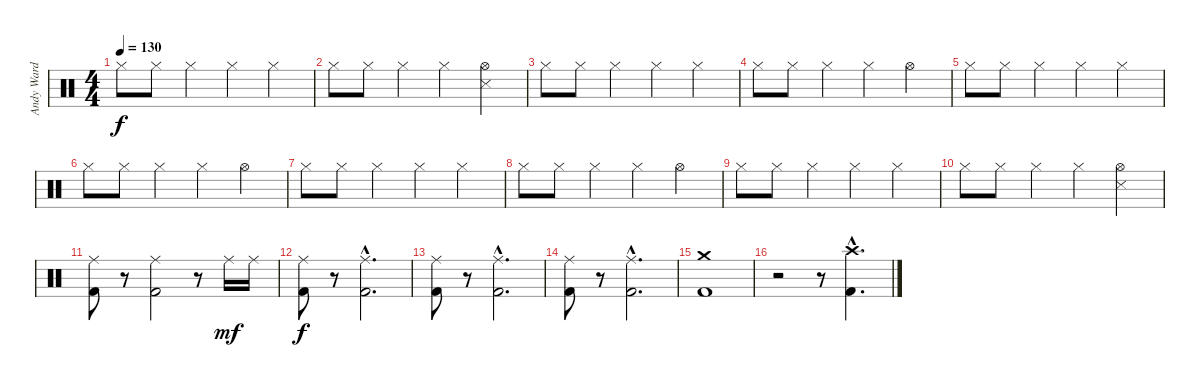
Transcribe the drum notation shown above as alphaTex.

\track ("Andy Ward" "Andy Ward") {instrument percussion}
\staff {score}
\articulation defaults
\ts (4 4)
\tempo 130
\clef neutral
\ks c "Hi-Hat (closed)".8{dy f} "Hi-Hat (closed)".8 "Hi-Hat (closed)".4 "Hi-Hat (closed)".4 "Hi-Hat (closed)".4
|
"Hi-Hat (closed)".8 "Hi-Hat (closed)".8 "Hi-Hat (closed)".4 "Hi-Hat (closed)".4 ("Hi-Hat (open)" "Snare (side stick) 3").4 |
"Hi-Hat (closed)".8 "Hi-Hat (closed)".8 "Hi-Hat (closed)".4 "Hi-Hat (closed)".4 "Hi-Hat (closed)".4 |
"Hi-Hat (closed)".8 "Hi-Hat (closed)".8 "Hi-Hat (closed)".4 "Hi-Hat (closed)".4 "Hi-Hat (open)".4 |
"Hi-Hat (closed)".8 "Hi-Hat (closed)".8 "Hi-Hat (closed)".4 "Hi-Hat (closed)".4 "Hi-Hat (closed)".4 |
"Hi-Hat (closed)".8 "Hi-Hat (closed)".8 "Hi-Hat (closed)".4 "Hi-Hat (closed)".4 "Hi-Hat (open)".4 |
"Hi-Hat (closed)".8 "Hi-Hat (closed)".8 "Hi-Hat (closed)".4 "Hi-Hat (closed)".4 "Hi-Hat (closed)".4 |
"Hi-Hat (closed)".8 "Hi-Hat (closed)".8 "Hi-Hat (closed)".4 "Hi-Hat (closed)".4 "Hi-Hat (open)".4 |
"Hi-Hat (closed)".8 "Hi-Hat (closed)".8 "Hi-Hat (closed)".4 "Hi-Hat (closed)".4 "Hi-Hat (closed)".4 |
"Hi-Hat (closed)".8 "Hi-Hat (closed)".8 "Hi-Hat (closed)".4 "Hi-Hat (closed)".4 ("Hi-Hat (open)" "Snare (side stick) 3").4 |
("Ride (middle)" "Kick (hit) 2").8 r.8 ("Ride (middle)" "Kick (hit) 2").2 r.8 "Ride (middle)".16{dy mf} "Ride (middle)".16 |
("Ride (middle)" "Kick (hit) 2").8{dy f} r.8 ("Ride (middle)"{hac} "Kick (hit) 2"{hac}).2{d} |
("Ride (middle)" "Kick (hit) 2").8 r.8 ("Ride (middle)"{hac} "Kick (hit) 2"{hac}).2{d} |
("Ride (middle)" "Kick (hit) 2").8 r.8 ("Ride (middle)"{hac} "Kick (hit) 2"{hac}).2{d} |
("Crash medium (hit)" "Kick (hit) 2").1 |
r.2 r.8 ("Crash high (hit)"{hac} "Kick (hit) 2"{hac}).4{d}
